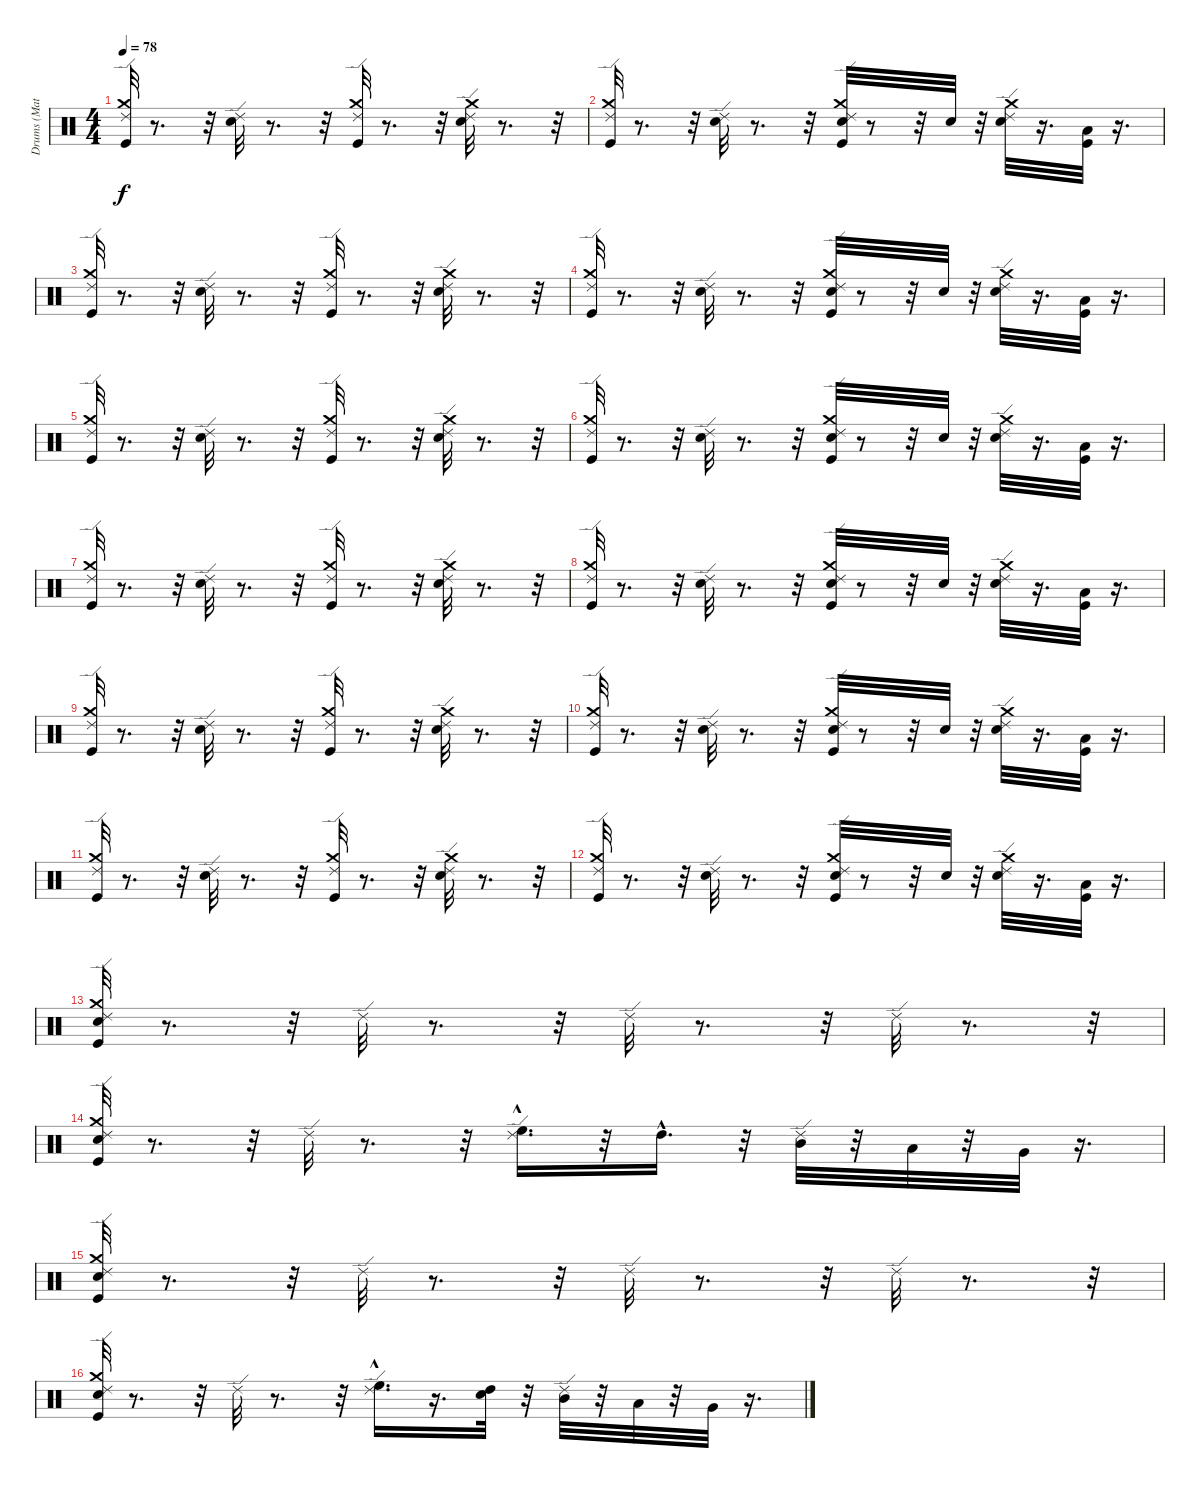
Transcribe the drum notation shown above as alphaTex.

\track ("Drums (Matt)" "Drums (Mat") {instrument percussion}
\staff {score}
\articulation defaults
\ts (4 4)
\tempo 78
\clef neutral
\ks c
("Kick (hit)" "Crash medium (hit)" "Ride (edge) 2").32{dy f} r.8{d} r.32 ("Snare (hit) 2" "Ride (edge) 2").32 r.8{d} r.32 ("Ride (edge) 2" "Crash medium (hit)" "Kick (hit)").32 r.8{d} r.32 ("Ride (edge) 2" "Crash medium (hit)" "Snare (hit) 2").32 r.8{d} r.32 |
("Kick (hit)" "Crash medium (hit)" "Ride (edge) 2").32 r.8{d} r.32 ("Snare (hit) 2" "Ride (edge) 2").32 r.8{d} r.32 ("Ride (edge) 2" "Crash medium (hit)" "Kick (hit)" "Snare (hit) 2").32 r.8 r.32 "Snare (hit) 2".32 r.32 ("Ride (edge) 2" "Crash medium (hit)" "Snare (hit) 2").32 r.16{d} ("Kick (hit)" "Low Floor Tom (hit)").32 r.16{d} |
("Kick (hit)" "Crash medium (hit)" "Ride (edge) 2").32 r.8{d} r.32 ("Snare (hit) 2" "Ride (edge) 2").32 r.8{d} r.32 ("Ride (edge) 2" "Crash medium (hit)" "Kick (hit)").32 r.8{d} r.32 ("Ride (edge) 2" "Crash medium (hit)" "Snare (hit) 2").32 r.8{d} r.32 |
("Kick (hit)" "Crash medium (hit)" "Ride (edge) 2").32 r.8{d} r.32 ("Snare (hit) 2" "Ride (edge) 2").32 r.8{d} r.32 ("Ride (edge) 2" "Crash medium (hit)" "Kick (hit)" "Snare (hit) 2").32 r.8 r.32 "Snare (hit) 2".32 r.32 ("Ride (edge) 2" "Crash medium (hit)" "Snare (hit) 2").32 r.16{d} ("Kick (hit)" "Low Floor Tom (hit)").32 r.16{d} |
("Kick (hit)" "Crash medium (hit)" "Ride (edge) 2").32 r.8{d} r.32 ("Snare (hit) 2" "Ride (edge) 2").32 r.8{d} r.32 ("Ride (edge) 2" "Crash medium (hit)" "Kick (hit)").32 r.8{d} r.32 ("Ride (edge) 2" "Crash medium (hit)" "Snare (hit) 2").32 r.8{d} r.32 |
("Kick (hit)" "Crash medium (hit)" "Ride (edge) 2").32 r.8{d} r.32 ("Snare (hit) 2" "Ride (edge) 2").32 r.8{d} r.32 ("Ride (edge) 2" "Crash medium (hit)" "Kick (hit)" "Snare (hit) 2").32 r.8 r.32 "Snare (hit) 2".32 r.32 ("Ride (edge) 2" "Crash medium (hit)" "Snare (hit) 2").32 r.16{d} ("Kick (hit)" "Low Floor Tom (hit)").32 r.16{d} |
("Kick (hit)" "Crash medium (hit)" "Ride (edge) 2").32 r.8{d} r.32 ("Snare (hit) 2" "Ride (edge) 2").32 r.8{d} r.32 ("Ride (edge) 2" "Crash medium (hit)" "Kick (hit)").32 r.8{d} r.32 ("Ride (edge) 2" "Crash medium (hit)" "Snare (hit) 2").32 r.8{d} r.32 |
("Kick (hit)" "Crash medium (hit)" "Ride (edge) 2").32 r.8{d} r.32 ("Snare (hit) 2" "Ride (edge) 2").32 r.8{d} r.32 ("Ride (edge) 2" "Crash medium (hit)" "Kick (hit)" "Snare (hit) 2").32 r.8 r.32 "Snare (hit) 2".32 r.32 ("Ride (edge) 2" "Crash medium (hit)" "Snare (hit) 2").32 r.16{d} ("Kick (hit)" "Low Floor Tom (hit)").32 r.16{d} |
("Kick (hit)" "Crash medium (hit)" "Ride (edge) 2").32 r.8{d} r.32 ("Snare (hit) 2" "Ride (edge) 2").32 r.8{d} r.32 ("Ride (edge) 2" "Crash medium (hit)" "Kick (hit)").32 r.8{d} r.32 ("Ride (edge) 2" "Crash medium (hit)" "Snare (hit) 2").32 r.8{d} r.32 |
("Kick (hit)" "Crash medium (hit)" "Ride (edge) 2").32 r.8{d} r.32 ("Snare (hit) 2" "Ride (edge) 2").32 r.8{d} r.32 ("Ride (edge) 2" "Crash medium (hit)" "Kick (hit)" "Snare (hit) 2").32 r.8 r.32 "Snare (hit) 2".32 r.32 ("Ride (edge) 2" "Crash medium (hit)" "Snare (hit) 2").32 r.16{d} ("Kick (hit)" "Low Floor Tom (hit)").32 r.16{d} |
("Kick (hit)" "Crash medium (hit)" "Ride (edge) 2").32 r.8{d} r.32 ("Snare (hit) 2" "Ride (edge) 2").32 r.8{d} r.32 ("Ride (edge) 2" "Crash medium (hit)" "Kick (hit)").32 r.8{d} r.32 ("Ride (edge) 2" "Crash medium (hit)" "Snare (hit) 2").32 r.8{d} r.32 |
("Kick (hit)" "Crash medium (hit)" "Ride (edge) 2").32 r.8{d} r.32 ("Snare (hit) 2" "Ride (edge) 2").32 r.8{d} r.32 ("Ride (edge) 2" "Crash medium (hit)" "Kick (hit)" "Snare (hit) 2").32 r.8 r.32 "Snare (hit) 2".32 r.32 ("Ride (edge) 2" "Crash medium (hit)" "Snare (hit) 2").32 r.16{d} ("Kick (hit)" "Low Floor Tom (hit)").32 r.16{d} |
("Kick (hit)" "Snare (hit) 2" "Crash medium (hit)" "Ride (edge) 2").32 r.8{d} r.32 "Ride (edge) 2".32 r.8{d} r.32 "Ride (edge) 2".32 r.8{d} r.32 "Ride (edge) 2".32 r.8{d} r.32 |
("Kick (hit)" "Snare (hit) 2" "Crash medium (hit)" "Ride (edge) 2").32 r.8{d} r.32 "Ride (edge) 2".32 r.8{d} r.32 ("Ride (edge) 2" "High Floor Tom (hit)"{hac}).16{d} r.32 "High Tom (hit)"{hac}.16{d} r.32 ("Ride (edge) 2" "Mid Tom (hit)").32 r.32 "Low Tom (hit)".32 r.32 "Very Low Tom (hit)".32 r.16{d} |
("Kick (hit)" "Snare (hit) 2" "Crash medium (hit)" "Ride (edge) 2").32 r.8{d} r.32 "Ride (edge) 2".32 r.8{d} r.32 "Ride (edge) 2".32 r.8{d} r.32 "Ride (edge) 2".32 r.8{d} r.32 |
("Kick (hit)" "Snare (hit) 2" "Crash medium (hit)" "Ride (edge) 2").32 r.8{d} r.32 "Ride (edge) 2".32 r.8{d} r.32 ("Ride (edge) 2" "High Floor Tom (hit)"{hac}).16{d} r.16{d} ("Snare (hit) 2" "High Tom (hit)").32 r.32 ("Ride (edge) 2" "Mid Tom (hit)").32 r.32 "Low Tom (hit)".32 r.32 "Very Low Tom (hit)".32 r.16{d}
